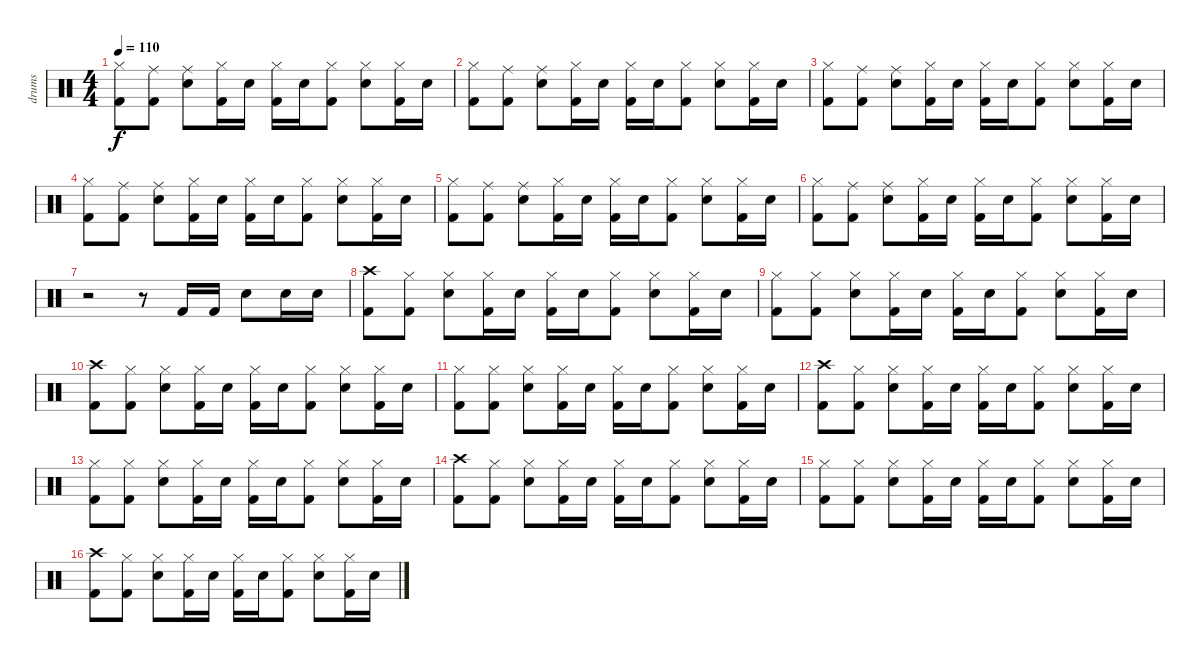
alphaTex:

\track ("drums" "drums") {instrument percussion}
\staff {score}
\articulation defaults
\ts (4 4)
\tempo 110
\clef neutral
\ks c
("Hi-Hat (closed)" "Kick (hit) 2").8{dy f} ("Ride (middle)" "Kick (hit) 2").8 ("Ride (middle)" "Snare (hit) 2").8 ("Hi-Hat (closed)" "Kick (hit) 2").16 "Snare (hit) 2".16 ("Hi-Hat (closed)" "Kick (hit) 2").16 "Snare (hit) 2".16 ("Hi-Hat (closed)" "Kick (hit) 2").8 ("Hi-Hat (closed)" "Snare (hit) 2").8 ("Hi-Hat (closed)" "Kick (hit) 2").16 "Snare (hit) 2".16 |
("Hi-Hat (closed)" "Kick (hit) 2").8 ("Ride (middle)" "Kick (hit) 2").8 ("Ride (middle)" "Snare (hit) 2").8 ("Hi-Hat (closed)" "Kick (hit) 2").16 "Snare (hit) 2".16 ("Hi-Hat (closed)" "Kick (hit) 2").16 "Snare (hit) 2".16 ("Hi-Hat (closed)" "Kick (hit) 2").8 ("Hi-Hat (closed)" "Snare (hit) 2").8 ("Hi-Hat (closed)" "Kick (hit) 2").16 "Snare (hit) 2".16 |
("Hi-Hat (closed)" "Kick (hit) 2").8 ("Ride (middle)" "Kick (hit) 2").8 ("Ride (middle)" "Snare (hit) 2").8 ("Hi-Hat (closed)" "Kick (hit) 2").16 "Snare (hit) 2".16 ("Hi-Hat (closed)" "Kick (hit) 2").16 "Snare (hit) 2".16 ("Hi-Hat (closed)" "Kick (hit) 2").8 ("Hi-Hat (closed)" "Snare (hit) 2").8 ("Hi-Hat (closed)" "Kick (hit) 2").16 "Snare (hit) 2".16 |
("Hi-Hat (closed)" "Kick (hit) 2").8 ("Ride (middle)" "Kick (hit) 2").8 ("Ride (middle)" "Snare (hit) 2").8 ("Hi-Hat (closed)" "Kick (hit) 2").16 "Snare (hit) 2".16 ("Hi-Hat (closed)" "Kick (hit) 2").16 "Snare (hit) 2".16 ("Hi-Hat (closed)" "Kick (hit) 2").8 ("Hi-Hat (closed)" "Snare (hit) 2").8 ("Hi-Hat (closed)" "Kick (hit) 2").16 "Snare (hit) 2".16 |
("Hi-Hat (closed)" "Kick (hit) 2").8 ("Ride (middle)" "Kick (hit) 2").8 ("Ride (middle)" "Snare (hit) 2").8 ("Hi-Hat (closed)" "Kick (hit) 2").16 "Snare (hit) 2".16 ("Hi-Hat (closed)" "Kick (hit) 2").16 "Snare (hit) 2".16 ("Hi-Hat (closed)" "Kick (hit) 2").8 ("Hi-Hat (closed)" "Snare (hit) 2").8 ("Hi-Hat (closed)" "Kick (hit) 2").16 "Snare (hit) 2".16 |
("Hi-Hat (closed)" "Kick (hit) 2").8 ("Ride (middle)" "Kick (hit) 2").8 ("Ride (middle)" "Snare (hit) 2").8 ("Hi-Hat (closed)" "Kick (hit) 2").16 "Snare (hit) 2".16 ("Hi-Hat (closed)" "Kick (hit) 2").16 "Snare (hit) 2".16 ("Hi-Hat (closed)" "Kick (hit) 2").8 ("Hi-Hat (closed)" "Snare (hit) 2").8 ("Hi-Hat (closed)" "Kick (hit) 2").16 "Snare (hit) 2".16 |
r.2 r.8 "Kick (hit) 2".16 "Kick (hit) 2".16 "Snare (hit) 2".8 "Snare (hit) 2".16 "Snare (hit) 2".16 |
("Crash high (hit)" "Kick (hit) 2").8 ("Hi-Hat (closed)" "Kick (hit) 2").8 ("Hi-Hat (closed)" "Snare (hit) 2").8 ("Hi-Hat (closed)" "Kick (hit) 2").16 "Snare (hit) 2".16 ("Hi-Hat (closed)" "Kick (hit) 2").16 "Snare (hit) 2".16 ("Hi-Hat (closed)" "Kick (hit) 2").8 ("Hi-Hat (closed)" "Snare (hit) 2").8 ("Hi-Hat (closed)" "Kick (hit) 2").16 "Snare (hit) 2".16 |
("Hi-Hat (closed)" "Kick (hit) 2").8 ("Hi-Hat (closed)" "Kick (hit) 2").8 ("Hi-Hat (closed)" "Snare (hit) 2").8 ("Hi-Hat (closed)" "Kick (hit) 2").16 "Snare (hit) 2".16 ("Hi-Hat (closed)" "Kick (hit) 2").16 "Snare (hit) 2".16 ("Hi-Hat (closed)" "Kick (hit) 2").8 ("Hi-Hat (closed)" "Snare (hit) 2").8 ("Hi-Hat (closed)" "Kick (hit) 2").16 "Snare (hit) 2".16 |
("Crash high (hit)" "Kick (hit) 2").8 ("Hi-Hat (closed)" "Kick (hit) 2").8 ("Hi-Hat (closed)" "Snare (hit) 2").8 ("Hi-Hat (closed)" "Kick (hit) 2").16 "Snare (hit) 2".16 ("Hi-Hat (closed)" "Kick (hit) 2").16 "Snare (hit) 2".16 ("Hi-Hat (closed)" "Kick (hit) 2").8 ("Hi-Hat (closed)" "Snare (hit) 2").8 ("Hi-Hat (closed)" "Kick (hit) 2").16 "Snare (hit) 2".16 |
("Hi-Hat (closed)" "Kick (hit) 2").8 ("Hi-Hat (closed)" "Kick (hit) 2").8 ("Hi-Hat (closed)" "Snare (hit) 2").8 ("Hi-Hat (closed)" "Kick (hit) 2").16 "Snare (hit) 2".16 ("Hi-Hat (closed)" "Kick (hit) 2").16 "Snare (hit) 2".16 ("Hi-Hat (closed)" "Kick (hit) 2").8 ("Hi-Hat (closed)" "Snare (hit) 2").8 ("Hi-Hat (closed)" "Kick (hit) 2").16 "Snare (hit) 2".16 |
("Crash high (hit)" "Kick (hit) 2").8 ("Hi-Hat (closed)" "Kick (hit) 2").8 ("Hi-Hat (closed)" "Snare (hit) 2").8 ("Hi-Hat (closed)" "Kick (hit) 2").16 "Snare (hit) 2".16 ("Hi-Hat (closed)" "Kick (hit) 2").16 "Snare (hit) 2".16 ("Hi-Hat (closed)" "Kick (hit) 2").8 ("Hi-Hat (closed)" "Snare (hit) 2").8 ("Hi-Hat (closed)" "Kick (hit) 2").16 "Snare (hit) 2".16 |
("Hi-Hat (closed)" "Kick (hit) 2").8 ("Hi-Hat (closed)" "Kick (hit) 2").8 ("Hi-Hat (closed)" "Snare (hit) 2").8 ("Hi-Hat (closed)" "Kick (hit) 2").16 "Snare (hit) 2".16 ("Hi-Hat (closed)" "Kick (hit) 2").16 "Snare (hit) 2".16 ("Hi-Hat (closed)" "Kick (hit) 2").8 ("Hi-Hat (closed)" "Snare (hit) 2").8 ("Hi-Hat (closed)" "Kick (hit) 2").16 "Snare (hit) 2".16 |
("Crash high (hit)" "Kick (hit) 2").8 ("Hi-Hat (closed)" "Kick (hit) 2").8 ("Hi-Hat (closed)" "Snare (hit) 2").8 ("Hi-Hat (closed)" "Kick (hit) 2").16 "Snare (hit) 2".16 ("Hi-Hat (closed)" "Kick (hit) 2").16 "Snare (hit) 2".16 ("Hi-Hat (closed)" "Kick (hit) 2").8 ("Hi-Hat (closed)" "Snare (hit) 2").8 ("Hi-Hat (closed)" "Kick (hit) 2").16 "Snare (hit) 2".16 |
("Hi-Hat (closed)" "Kick (hit) 2").8 ("Hi-Hat (closed)" "Kick (hit) 2").8 ("Hi-Hat (closed)" "Snare (hit) 2").8 ("Hi-Hat (closed)" "Kick (hit) 2").16 "Snare (hit) 2".16 ("Hi-Hat (closed)" "Kick (hit) 2").16 "Snare (hit) 2".16 ("Hi-Hat (closed)" "Kick (hit) 2").8 ("Hi-Hat (closed)" "Snare (hit) 2").8 ("Hi-Hat (closed)" "Kick (hit) 2").16 "Snare (hit) 2".16 |
("Crash high (hit)" "Kick (hit) 2").8 ("Hi-Hat (closed)" "Kick (hit) 2").8 ("Hi-Hat (closed)" "Snare (hit) 2").8 ("Hi-Hat (closed)" "Kick (hit) 2").16 "Snare (hit) 2".16 ("Hi-Hat (closed)" "Kick (hit) 2").16 "Snare (hit) 2".16 ("Hi-Hat (closed)" "Kick (hit) 2").8 ("Hi-Hat (closed)" "Snare (hit) 2").8 ("Hi-Hat (closed)" "Kick (hit) 2").16 "Snare (hit) 2".16
